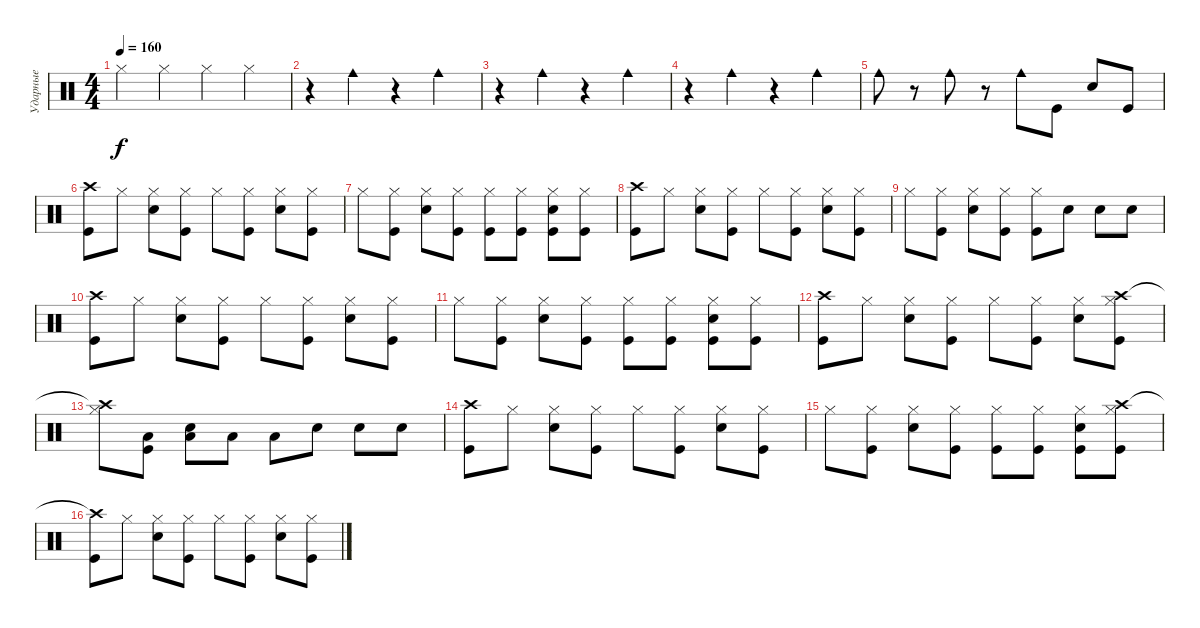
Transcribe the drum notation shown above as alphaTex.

\track ("Ударные" "Ударные") {instrument percussion}
\staff {score}
\articulation defaults
\ts (4 4)
\tempo 160
\clef neutral
\ks c "Hi-Hat (closed)".4{dy f} "Hi-Hat (closed)".4 "Hi-Hat (closed)".4 "Hi-Hat (closed)".4
|
r.4 "Cowbell medium (hit)".4 r.4 "Cowbell medium (hit)".4 |
r.4 "Cowbell medium (hit)".4 r.4 "Cowbell medium (hit)".4 |
r.4 "Cowbell medium (hit)".4 r.4 "Cowbell medium (hit)".4 |
"Cowbell medium (hit)".8 r.8 "Cowbell medium (hit)".8 r.8 "Cowbell medium (hit)".8 "Kick (hit)".8 "Electric Snare (hit)".8 "Kick (hit)".8 |
("Crash high (hit)" "Kick (hit)").8 "Hi-Hat (closed)".8 ("Hi-Hat (closed)" "Electric Snare (hit)").8 ("Hi-Hat (closed)" "Kick (hit)").8 "Hi-Hat (closed)".8 ("Hi-Hat (closed)" "Kick (hit)").8 ("Hi-Hat (closed)" "Electric Snare (hit)").8 ("Hi-Hat (closed)" "Kick (hit)").8 |
"Hi-Hat (closed)".8 ("Hi-Hat (closed)" "Kick (hit)").8 ("Hi-Hat (closed)" "Electric Snare (hit)").8 ("Hi-Hat (closed)" "Kick (hit)").8 ("Hi-Hat (closed)" "Kick (hit)").8 ("Hi-Hat (closed)" "Kick (hit)").8 ("Hi-Hat (closed)" "Electric Snare (hit)" "Kick (hit)").8 ("Hi-Hat (closed)" "Kick (hit)").8 |
("Crash high (hit)" "Kick (hit)").8 "Hi-Hat (closed)".8 ("Hi-Hat (closed)" "Electric Snare (hit)").8 ("Hi-Hat (closed)" "Kick (hit)").8 "Hi-Hat (closed)".8 ("Hi-Hat (closed)" "Kick (hit)").8 ("Hi-Hat (closed)" "Electric Snare (hit)").8 ("Hi-Hat (closed)" "Kick (hit)").8 |
"Hi-Hat (closed)".8 ("Hi-Hat (closed)" "Kick (hit)").8 ("Hi-Hat (closed)" "Electric Snare (hit)").8 ("Hi-Hat (closed)" "Kick (hit)").8 ("Hi-Hat (closed)" "Kick (hit)").8 "Electric Snare (hit)".8 "Electric Snare (hit)".8 "Electric Snare (hit)".8 |
("Crash high (hit)" "Kick (hit)").8 "Hi-Hat (closed)".8 ("Hi-Hat (closed)" "Electric Snare (hit)").8 ("Hi-Hat (closed)" "Kick (hit)").8 "Hi-Hat (closed)".8 ("Hi-Hat (closed)" "Kick (hit)").8 ("Hi-Hat (closed)" "Electric Snare (hit)").8 ("Hi-Hat (closed)" "Kick (hit)").8 |
"Hi-Hat (closed)".8 ("Hi-Hat (closed)" "Kick (hit)").8 ("Hi-Hat (closed)" "Electric Snare (hit)").8 ("Hi-Hat (closed)" "Kick (hit)").8 ("Hi-Hat (closed)" "Kick (hit)").8 ("Hi-Hat (closed)" "Kick (hit)").8 ("Hi-Hat (closed)" "Electric Snare (hit)" "Kick (hit)").8 ("Hi-Hat (closed)" "Kick (hit)").8 |
("Crash high (hit)" "Kick (hit)").8 "Hi-Hat (closed)".8 ("Hi-Hat (closed)" "Electric Snare (hit)").8 ("Hi-Hat (closed)" "Kick (hit)").8 "Hi-Hat (closed)".8 ("Hi-Hat (closed)" "Kick (hit)").8 ("Hi-Hat (closed)" "Electric Snare (hit)").8 ("Crash high (hit)" "Hi-Hat (closed)" "Kick (hit)").8 |
("Crash high (hit)"{t} "Hi-Hat (closed)").8 ("Low Tom (hit)" "Kick (hit)").8 ("Low Tom (hit)" "Electric Snare (hit)").8 "Low Tom (hit)".8 "Low Tom (hit)".8 "Electric Snare (hit)".8 "Electric Snare (hit)".8 "Electric Snare (hit)".8 |
("Crash high (hit)" "Kick (hit)").8 "Hi-Hat (closed)".8 ("Hi-Hat (closed)" "Electric Snare (hit)").8 ("Hi-Hat (closed)" "Kick (hit)").8 "Hi-Hat (closed)".8 ("Hi-Hat (closed)" "Kick (hit)").8 ("Hi-Hat (closed)" "Electric Snare (hit)").8 ("Hi-Hat (closed)" "Kick (hit)").8 |
"Hi-Hat (closed)".8 ("Hi-Hat (closed)" "Kick (hit)").8 ("Hi-Hat (closed)" "Electric Snare (hit)").8 ("Hi-Hat (closed)" "Kick (hit)").8 ("Hi-Hat (closed)" "Kick (hit)").8 ("Hi-Hat (closed)" "Kick (hit)").8 ("Hi-Hat (closed)" "Electric Snare (hit)" "Kick (hit)").8 ("Crash high (hit)" "Hi-Hat (closed)" "Kick (hit)").8 |
("Crash high (hit)"{t} "Kick (hit)").8 "Hi-Hat (closed)".8 ("Hi-Hat (closed)" "Electric Snare (hit)").8 ("Hi-Hat (closed)" "Kick (hit)").8 "Hi-Hat (closed)".8 ("Hi-Hat (closed)" "Kick (hit)").8 ("Hi-Hat (closed)" "Electric Snare (hit)").8 ("Hi-Hat (closed)" "Kick (hit)").8
